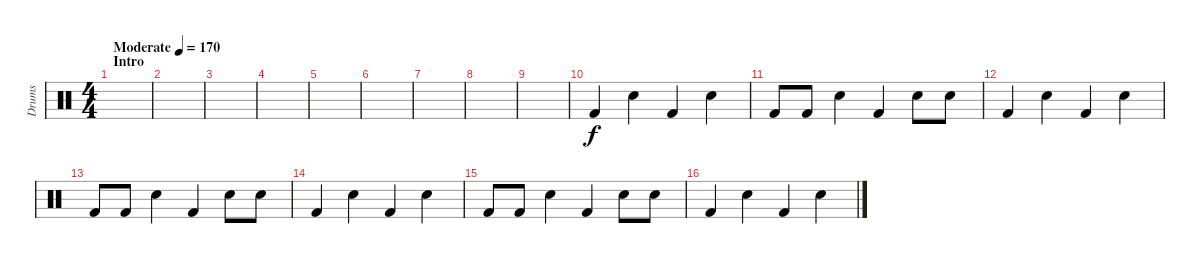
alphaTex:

\track ("Drums" "Drums") {instrument percussion}
\staff {score}
\articulation defaults
\ts (4 4)
\section ("" "Intro")
\tempo (170 "Moderate")
\clef neutral
\ks c
|
|
|
|
|
|
|
|
|
"Kick (hit) 2".4 "Hand Clap (hit)".4 "Kick (hit) 2".4 "Hand Clap (hit)".4 |
"Kick (hit) 2".8 "Kick (hit) 2".8 "Hand Clap (hit)".4 "Kick (hit) 2".4 "Hand Clap (hit)".8 "Hand Clap (hit)".8 |
"Kick (hit) 2".4 "Hand Clap (hit)".4 "Kick (hit) 2".4 "Hand Clap (hit)".4 |
"Kick (hit) 2".8 "Kick (hit) 2".8 "Hand Clap (hit)".4 "Kick (hit) 2".4 "Hand Clap (hit)".8 "Hand Clap (hit)".8 |
"Kick (hit) 2".4 "Hand Clap (hit)".4 "Kick (hit) 2".4 "Hand Clap (hit)".4 |
"Kick (hit) 2".8 "Kick (hit) 2".8 "Hand Clap (hit)".4 "Kick (hit) 2".4 "Hand Clap (hit)".8 "Hand Clap (hit)".8 |
"Kick (hit) 2".4 "Hand Clap (hit)".4 "Kick (hit) 2".4 "Hand Clap (hit)".4
